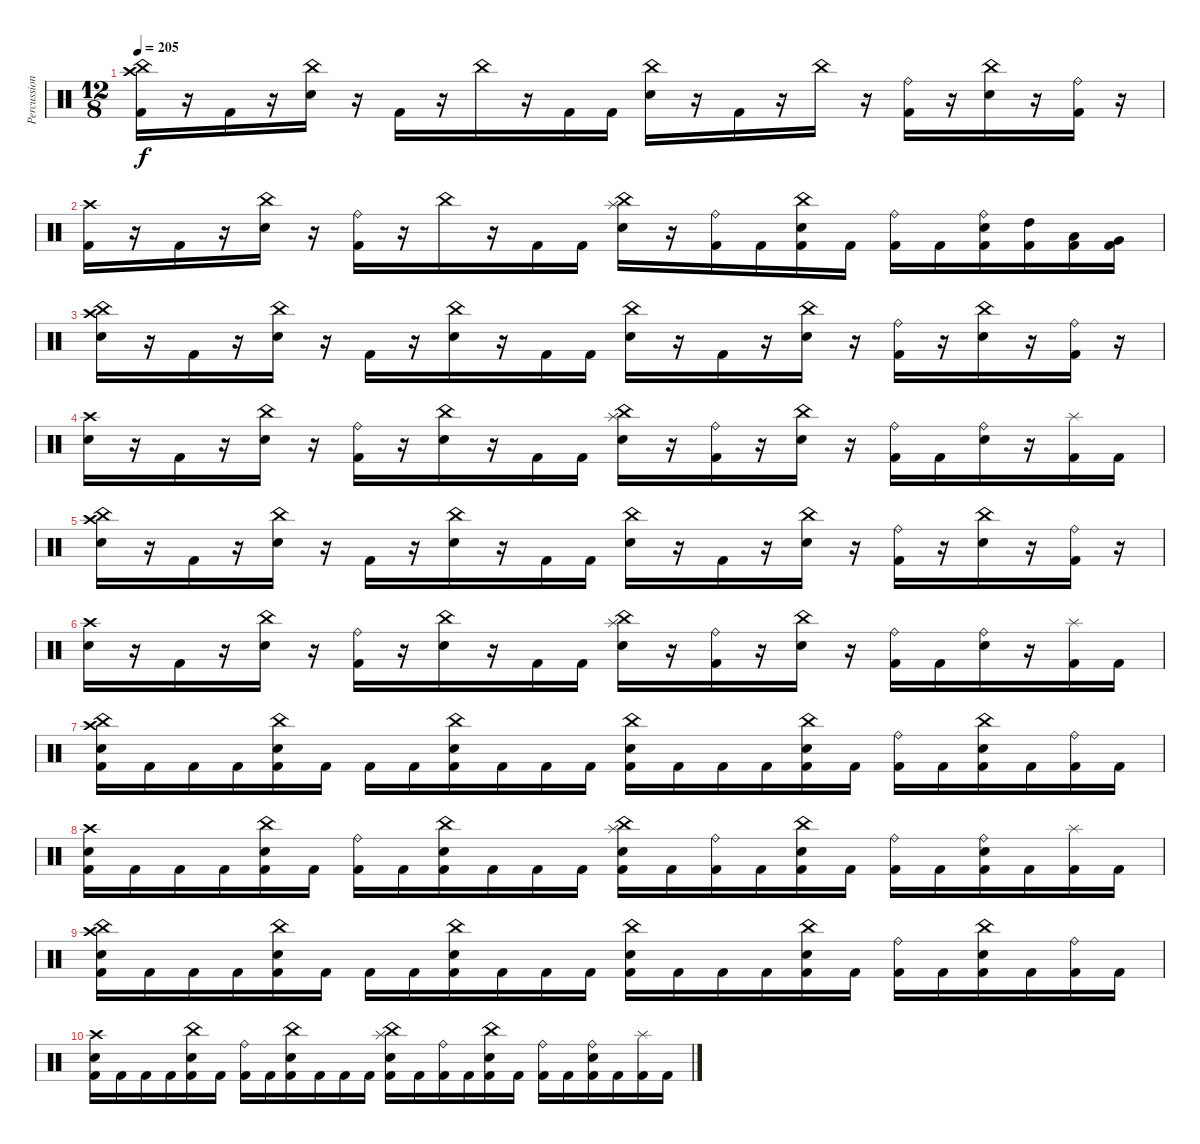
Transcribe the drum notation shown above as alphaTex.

\track ("Percussion" "Percussion") {instrument percussion}
\staff {score}
\articulation defaults
\ts (12 8)
\tempo 205
\clef neutral
\ks c
("Crash high (hit)" "China (hit)" "Kick (hit) 2").16{dy f} r.16 "Kick (hit) 2".16 r.16 ("China (hit)" "Electric Snare (hit)").16 r.16 "Kick (hit) 2".16 r.16 "China (hit)".16 r.16 "Kick (hit) 2".16 "Kick (hit) 2".16 ("China (hit)" "Electric Snare (hit)").16 r.16 "Kick (hit) 2".16 r.16 "China (hit)".16 r.16 ("Ride (bell)" "Kick (hit) 2").16 r.16 ("China (hit)" "Electric Snare (hit)").16 r.16 ("Ride (bell)" "Kick (hit) 2").16 r.16 |
("Crash high (hit)" "Kick (hit) 2").16 r.16 "Kick (hit) 2".16 r.16 ("China (hit)" "Electric Snare (hit)").16 r.16 ("Ride (bell)" "Kick (hit) 2").16 r.16 "China (hit)".16 r.16 "Kick (hit) 2".16 "Kick (hit) 2".16 ("China (hit)" "Splash (hit)" "Electric Snare (hit)").16 r.16 ("Ride (bell)" "Kick (hit) 2").16 "Kick (hit) 2".16 ("China (hit)" "Electric Snare (hit)" "Kick (hit) 2").16 "Kick (hit) 2".16 ("Ride (bell)" "Kick (hit) 2").16 "Kick (hit) 2".16 ("Ride (bell)" "Electric Snare (hit)" "Kick (hit) 2").16 ("High Tom (hit)" "Kick (hit) 2").16 ("Low Tom (hit)" "Kick (hit) 2").16 ("Very Low Tom (hit)" "Kick (hit) 2").16 |
("Crash high (hit)" "China (hit)" "Electric Snare (hit)").16 r.16 "Kick (hit) 2".16 r.16 ("China (hit)" "Electric Snare (hit)").16 r.16 "Kick (hit) 2".16 r.16 ("China (hit)" "Electric Snare (hit)").16 r.16 "Kick (hit) 2".16 "Kick (hit) 2".16 ("China (hit)" "Electric Snare (hit)").16 r.16 "Kick (hit) 2".16 r.16 ("China (hit)" "Electric Snare (hit)").16 r.16 ("Ride (bell)" "Kick (hit) 2").16 r.16 ("China (hit)" "Electric Snare (hit)").16 r.16 ("Ride (bell)" "Kick (hit) 2").16 r.16 |
("Crash high (hit)" "Electric Snare (hit)").16 r.16 "Kick (hit) 2".16 r.16 ("China (hit)" "Electric Snare (hit)").16 r.16 ("Ride (bell)" "Kick (hit) 2").16 r.16 ("China (hit)" "Electric Snare (hit)").16 r.16 "Kick (hit) 2".16 "Kick (hit) 2".16 ("China (hit)" "Splash (hit)" "Electric Snare (hit)").16 r.16 ("Ride (bell)" "Kick (hit) 2").16 r.16 ("China (hit)" "Electric Snare (hit)").16 r.16 ("Ride (bell)" "Kick (hit) 2").16 "Kick (hit) 2".16 ("Ride (bell)" "Electric Snare (hit)").16 r.16 ("Splash (hit)" "Kick (hit) 2").16 "Kick (hit) 2".16 |
("Crash high (hit)" "China (hit)" "Electric Snare (hit)").16 r.16 "Kick (hit) 2".16 r.16 ("China (hit)" "Electric Snare (hit)").16 r.16 "Kick (hit) 2".16 r.16 ("China (hit)" "Electric Snare (hit)").16 r.16 "Kick (hit) 2".16 "Kick (hit) 2".16 ("China (hit)" "Electric Snare (hit)").16 r.16 "Kick (hit) 2".16 r.16 ("China (hit)" "Electric Snare (hit)").16 r.16 ("Ride (bell)" "Kick (hit) 2").16 r.16 ("China (hit)" "Electric Snare (hit)").16 r.16 ("Ride (bell)" "Kick (hit) 2").16 r.16 |
("Crash high (hit)" "Electric Snare (hit)").16 r.16 "Kick (hit) 2".16 r.16 ("China (hit)" "Electric Snare (hit)").16 r.16 ("Ride (bell)" "Kick (hit) 2").16 r.16 ("China (hit)" "Electric Snare (hit)").16 r.16 "Kick (hit) 2".16 "Kick (hit) 2".16 ("China (hit)" "Splash (hit)" "Electric Snare (hit)").16 r.16 ("Ride (bell)" "Kick (hit) 2").16 r.16 ("China (hit)" "Electric Snare (hit)").16 r.16 ("Ride (bell)" "Kick (hit) 2").16 "Kick (hit) 2".16 ("Ride (bell)" "Electric Snare (hit)").16 r.16 ("Splash (hit)" "Kick (hit) 2").16 "Kick (hit) 2".16 |
("Crash high (hit)" "China (hit)" "Electric Snare (hit)" "Kick (hit) 2").16 "Kick (hit) 2".16 "Kick (hit) 2".16 "Kick (hit) 2".16 ("China (hit)" "Electric Snare (hit)" "Kick (hit) 2").16 "Kick (hit) 2".16 "Kick (hit) 2".16 "Kick (hit) 2".16 ("China (hit)" "Electric Snare (hit)" "Kick (hit) 2").16 "Kick (hit) 2".16 "Kick (hit) 2".16 "Kick (hit) 2".16 ("China (hit)" "Electric Snare (hit)" "Kick (hit) 2").16 "Kick (hit) 2".16 "Kick (hit) 2".16 "Kick (hit) 2".16 ("China (hit)" "Electric Snare (hit)" "Kick (hit) 2").16 "Kick (hit) 2".16 ("Ride (bell)" "Kick (hit) 2").16 "Kick (hit) 2".16 ("China (hit)" "Electric Snare (hit)" "Kick (hit) 2").16 "Kick (hit) 2".16 ("Ride (bell)" "Kick (hit) 2").16 "Kick (hit) 2".16 |
("Crash high (hit)" "Electric Snare (hit)" "Kick (hit) 2").16 "Kick (hit) 2".16 "Kick (hit) 2".16 "Kick (hit) 2".16 ("China (hit)" "Electric Snare (hit)" "Kick (hit) 2").16 "Kick (hit) 2".16 ("Ride (bell)" "Kick (hit) 2").16 "Kick (hit) 2".16 ("China (hit)" "Electric Snare (hit)" "Kick (hit) 2").16 "Kick (hit) 2".16 "Kick (hit) 2".16 "Kick (hit) 2".16 ("China (hit)" "Splash (hit)" "Electric Snare (hit)" "Kick (hit) 2").16 "Kick (hit) 2".16 ("Ride (bell)" "Kick (hit) 2").16 "Kick (hit) 2".16 ("China (hit)" "Electric Snare (hit)" "Kick (hit) 2").16 "Kick (hit) 2".16 ("Ride (bell)" "Kick (hit) 2").16 "Kick (hit) 2".16 ("Ride (bell)" "Electric Snare (hit)" "Kick (hit) 2").16 "Kick (hit) 2".16 ("Splash (hit)" "Kick (hit) 2").16 "Kick (hit) 2".16 |
("Crash high (hit)" "China (hit)" "Electric Snare (hit)" "Kick (hit) 2").16 "Kick (hit) 2".16 "Kick (hit) 2".16 "Kick (hit) 2".16 ("China (hit)" "Electric Snare (hit)" "Kick (hit) 2").16 "Kick (hit) 2".16 "Kick (hit) 2".16 "Kick (hit) 2".16 ("China (hit)" "Electric Snare (hit)" "Kick (hit) 2").16 "Kick (hit) 2".16 "Kick (hit) 2".16 "Kick (hit) 2".16 ("China (hit)" "Electric Snare (hit)" "Kick (hit) 2").16 "Kick (hit) 2".16 "Kick (hit) 2".16 "Kick (hit) 2".16 ("China (hit)" "Electric Snare (hit)" "Kick (hit) 2").16 "Kick (hit) 2".16 ("Ride (bell)" "Kick (hit) 2").16 "Kick (hit) 2".16 ("China (hit)" "Electric Snare (hit)" "Kick (hit) 2").16 "Kick (hit) 2".16 ("Ride (bell)" "Kick (hit) 2").16 "Kick (hit) 2".16 |
("Crash high (hit)" "Electric Snare (hit)" "Kick (hit) 2").16 "Kick (hit) 2".16 "Kick (hit) 2".16 "Kick (hit) 2".16 ("China (hit)" "Electric Snare (hit)" "Kick (hit) 2").16 "Kick (hit) 2".16 ("Ride (bell)" "Kick (hit) 2").16 "Kick (hit) 2".16 ("China (hit)" "Electric Snare (hit)" "Kick (hit) 2").16 "Kick (hit) 2".16 "Kick (hit) 2".16 "Kick (hit) 2".16 ("China (hit)" "Splash (hit)" "Electric Snare (hit)" "Kick (hit) 2").16 "Kick (hit) 2".16 ("Ride (bell)" "Kick (hit) 2").16 "Kick (hit) 2".16 ("China (hit)" "Electric Snare (hit)" "Kick (hit) 2").16 "Kick (hit) 2".16 ("Ride (bell)" "Kick (hit) 2").16 "Kick (hit) 2".16 ("Ride (bell)" "Electric Snare (hit)" "Kick (hit) 2").16 "Kick (hit) 2".16 ("Splash (hit)" "Kick (hit) 2").16 "Kick (hit) 2".16
